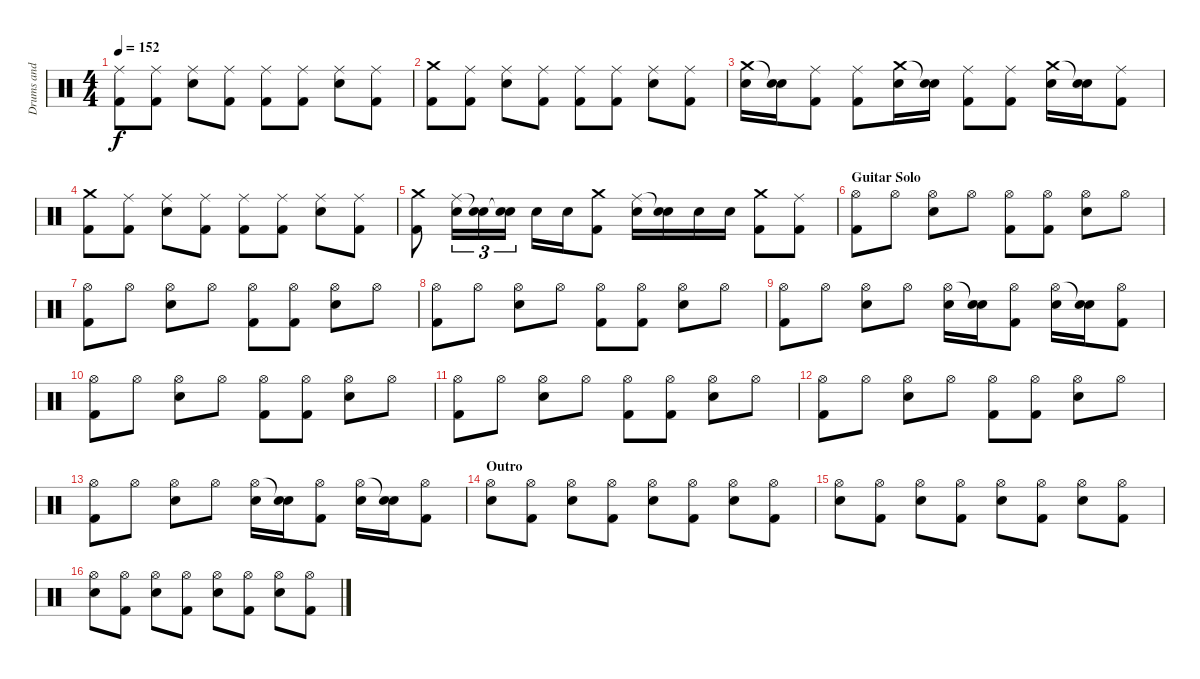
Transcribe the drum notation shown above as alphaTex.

\track ("Drums and Percussion" "Drums and ") {instrument percussion}
\staff {score}
\articulation defaults
\ts (4 4)
\tempo 152
\clef neutral
\ks c
("Ride (middle)" "Kick (hit) 2").8{dy f} ("Ride (middle)" "Kick (hit) 2").8 ("Ride (middle)" "Electric Snare (hit)").8 ("Ride (middle)" "Kick (hit) 2").8 ("Ride (middle)" "Kick (hit) 2").8 ("Ride (middle)" "Kick (hit) 2").8 ("Ride (middle)" "Electric Snare (hit)").8 ("Ride (middle)" "Kick (hit) 2").8 |
("Crash medium (hit)" "Kick (hit) 2").8 ("Ride (middle)" "Kick (hit) 2").8 ("Ride (middle)" "Electric Snare (hit)").8 ("Ride (middle)" "Kick (hit) 2").8 ("Ride (middle)" "Kick (hit) 2").8 ("Ride (middle)" "Kick (hit) 2").8 ("Ride (middle)" "Electric Snare (hit)").8 ("Ride (middle)" "Kick (hit) 2").8 |
("Crash medium (hit)" "Electric Snare (hit)").16 ("Snare (hit)"{t} "Electric Snare (hit)").16 ("Ride (middle)" "Kick (hit) 2").8 ("Ride (middle)" "Kick (hit) 2").8 ("Crash medium (hit)" "Electric Snare (hit)").16 ("Snare (hit)"{t} "Electric Snare (hit)").16 ("Ride (middle)" "Kick (hit) 2").8 ("Ride (middle)" "Kick (hit) 2").8 ("Crash medium (hit)" "Electric Snare (hit)").16 ("Snare (hit)"{t} "Electric Snare (hit)").16 ("Ride (middle)" "Kick (hit) 2").8 |
("Crash medium (hit)" "Kick (hit) 2").8 ("Ride (middle)" "Kick (hit) 2").8 ("Ride (middle)" "Electric Snare (hit)").8 ("Ride (middle)" "Kick (hit) 2").8 ("Ride (middle)" "Kick (hit) 2").8 ("Ride (middle)" "Kick (hit) 2").8 ("Ride (middle)" "Electric Snare (hit)").8 ("Ride (middle)" "Kick (hit) 2").8 |
("Crash medium (hit)" "Kick (hit) 2").8 ("Ride (middle)" "Electric Snare (hit)").16{tu (3 2)} ("Snare (hit)"{t} "Electric Snare (hit)").16{tu (3 2)} ("Snare (hit)"{t} "Electric Snare (hit)").16{tu (3 2)} "Electric Snare (hit)".16 "Electric Snare (hit)".16 ("Crash medium (hit)" "Kick (hit) 2").8 ("Ride (middle)" "Electric Snare (hit)").16 ("Snare (hit)"{t} "Electric Snare (hit)").16 "Electric Snare (hit)".16 "Electric Snare (hit)".16 ("Crash medium (hit)" "Kick (hit) 2").8 ("Ride (middle)" "Kick (hit) 2").8 |
\section ("" "Guitar Solo")
("Hi-Hat (open)" "Kick (hit) 2").8 "Hi-Hat (open)".8 ("Hi-Hat (open)" "Electric Snare (hit)").8 "Hi-Hat (open)".8 ("Hi-Hat (open)" "Kick (hit) 2").8 ("Hi-Hat (open)" "Kick (hit) 2").8 ("Hi-Hat (open)" "Electric Snare (hit)").8 "Hi-Hat (open)".8 |
("Hi-Hat (open)" "Kick (hit) 2").8 "Hi-Hat (open)".8 ("Hi-Hat (open)" "Electric Snare (hit)").8 "Hi-Hat (open)".8 ("Hi-Hat (open)" "Kick (hit) 2").8 ("Hi-Hat (open)" "Kick (hit) 2").8 ("Hi-Hat (open)" "Electric Snare (hit)").8 "Hi-Hat (open)".8 |
("Hi-Hat (open)" "Kick (hit) 2").8 "Hi-Hat (open)".8 ("Hi-Hat (open)" "Electric Snare (hit)").8 "Hi-Hat (open)".8 ("Hi-Hat (open)" "Kick (hit) 2").8 ("Hi-Hat (open)" "Kick (hit) 2").8 ("Hi-Hat (open)" "Electric Snare (hit)").8 "Hi-Hat (open)".8 |
("Hi-Hat (open)" "Kick (hit) 2").8 "Hi-Hat (open)".8 ("Hi-Hat (open)" "Electric Snare (hit)").8 "Hi-Hat (open)".8 ("Hi-Hat (open)" "Electric Snare (hit)").16 ("Snare (hit)"{t} "Electric Snare (hit)").16 ("Hi-Hat (open)" "Kick (hit) 2").8 ("Hi-Hat (open)" "Electric Snare (hit)").16 ("Snare (hit)"{t} "Electric Snare (hit)").16 ("Hi-Hat (open)" "Kick (hit) 2").8 |
("Hi-Hat (open)" "Kick (hit) 2").8 "Hi-Hat (open)".8 ("Hi-Hat (open)" "Electric Snare (hit)").8 "Hi-Hat (open)".8 ("Hi-Hat (open)" "Kick (hit) 2").8 ("Hi-Hat (open)" "Kick (hit) 2").8 ("Hi-Hat (open)" "Electric Snare (hit)").8 "Hi-Hat (open)".8 |
("Hi-Hat (open)" "Kick (hit) 2").8 "Hi-Hat (open)".8 ("Hi-Hat (open)" "Electric Snare (hit)").8 "Hi-Hat (open)".8 ("Hi-Hat (open)" "Kick (hit) 2").8 ("Hi-Hat (open)" "Kick (hit) 2").8 ("Hi-Hat (open)" "Electric Snare (hit)").8 "Hi-Hat (open)".8 |
("Hi-Hat (open)" "Kick (hit) 2").8 "Hi-Hat (open)".8 ("Hi-Hat (open)" "Electric Snare (hit)").8 "Hi-Hat (open)".8 ("Hi-Hat (open)" "Kick (hit) 2").8 ("Hi-Hat (open)" "Kick (hit) 2").8 ("Hi-Hat (open)" "Electric Snare (hit)").8 "Hi-Hat (open)".8 |
("Hi-Hat (open)" "Kick (hit) 2").8 "Hi-Hat (open)".8 ("Hi-Hat (open)" "Electric Snare (hit)").8 "Hi-Hat (open)".8 ("Hi-Hat (open)" "Electric Snare (hit)").16 ("Snare (hit)"{t} "Electric Snare (hit)").16 ("Hi-Hat (open)" "Kick (hit) 2").8 ("Hi-Hat (open)" "Electric Snare (hit)").16 ("Snare (hit)"{t} "Electric Snare (hit)").16 ("Hi-Hat (open)" "Kick (hit) 2").8 |
\section ("" "Outro")
("Hi-Hat (open)" "Electric Snare (hit)").8 ("Hi-Hat (open)" "Kick (hit) 2").8 ("Hi-Hat (open)" "Electric Snare (hit)").8 ("Hi-Hat (open)" "Kick (hit) 2").8 ("Hi-Hat (open)" "Electric Snare (hit)").8 ("Hi-Hat (open)" "Kick (hit) 2").8 ("Hi-Hat (open)" "Electric Snare (hit)").8 ("Hi-Hat (open)" "Kick (hit) 2").8 |
("Hi-Hat (open)" "Electric Snare (hit)").8 ("Hi-Hat (open)" "Kick (hit) 2").8 ("Hi-Hat (open)" "Electric Snare (hit)").8 ("Hi-Hat (open)" "Kick (hit) 2").8 ("Hi-Hat (open)" "Electric Snare (hit)").8 ("Hi-Hat (open)" "Kick (hit) 2").8 ("Hi-Hat (open)" "Electric Snare (hit)").8 ("Hi-Hat (open)" "Kick (hit) 2").8 |
("Hi-Hat (open)" "Electric Snare (hit)").8 ("Hi-Hat (open)" "Kick (hit) 2").8 ("Hi-Hat (open)" "Electric Snare (hit)").8 ("Hi-Hat (open)" "Kick (hit) 2").8 ("Hi-Hat (open)" "Electric Snare (hit)").8 ("Hi-Hat (open)" "Kick (hit) 2").8 ("Hi-Hat (open)" "Electric Snare (hit)").8 ("Hi-Hat (open)" "Kick (hit) 2").8
